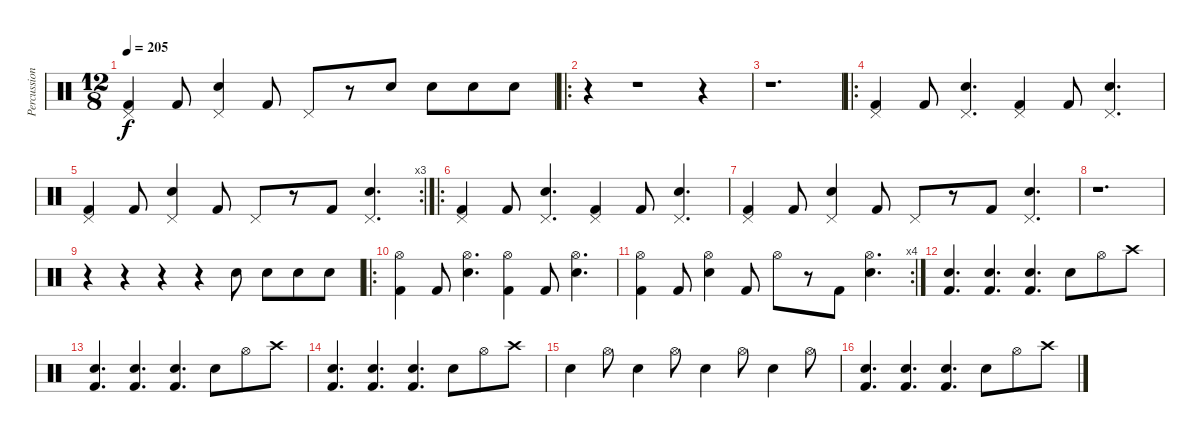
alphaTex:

\track ("Percussion" "Percussion") {instrument percussion}
\staff {score}
\articulation defaults
\ts (12 8)
\tempo 205
\clef neutral
\ks c
("Pedal Hi-Hat (hit)" "Kick (hit) 2").4{dy f} "Kick (hit) 2".8 ("Pedal Hi-Hat (hit)" "Snare (hit) 2").4 "Kick (hit) 2".8 "Pedal Hi-Hat (hit)".8 r.8 "Snare (hit) 2".8 "Snare (hit) 2".8 "Snare (hit) 2".8 "Snare (hit) 2".8 |
\ro
r.4 r.1 r.4 |
r.1{d} |
\ro
("Pedal Hi-Hat (hit)" "Kick (hit) 2").4 "Kick (hit) 2".8 ("Pedal Hi-Hat (hit)" "Snare (hit) 2").4{d} ("Pedal Hi-Hat (hit)" "Kick (hit) 2").4 "Kick (hit) 2".8 ("Pedal Hi-Hat (hit)" "Snare (hit) 2").4{d} |
\rc 3
("Pedal Hi-Hat (hit)" "Kick (hit) 2").4 "Kick (hit) 2".8 ("Pedal Hi-Hat (hit)" "Snare (hit) 2").4 "Kick (hit) 2".8 "Pedal Hi-Hat (hit)".8 r.8 "Kick (hit) 2".8 ("Pedal Hi-Hat (hit)" "Snare (hit) 2").4{d} |
\ro
("Pedal Hi-Hat (hit)" "Kick (hit) 2").4 "Kick (hit) 2".8 ("Pedal Hi-Hat (hit)" "Snare (hit) 2").4{d} ("Pedal Hi-Hat (hit)" "Kick (hit) 2").4 "Kick (hit) 2".8 ("Pedal Hi-Hat (hit)" "Snare (hit) 2").4{d} |
("Pedal Hi-Hat (hit)" "Kick (hit) 2").4 "Kick (hit) 2".8 ("Pedal Hi-Hat (hit)" "Snare (hit) 2").4 "Kick (hit) 2".8 "Pedal Hi-Hat (hit)".8 r.8 "Kick (hit) 2".8 ("Pedal Hi-Hat (hit)" "Snare (hit) 2").4{d} |
r.1{d} |
r.4 r.4 r.4 r.4 "Snare (hit) 2".8 "Snare (hit) 2".8 "Snare (hit) 2".8 "Snare (hit) 2".8 |
\ro
("Hi-Hat (open)" "Kick (hit) 2").4 "Kick (hit) 2".8 ("Hi-Hat (open)" "Snare (hit) 2").4{d} ("Hi-Hat (open)" "Kick (hit) 2").4 "Kick (hit) 2".8 ("Hi-Hat (open)" "Snare (hit) 2").4{d} |
\rc 4
("Hi-Hat (open)" "Kick (hit) 2").4 "Kick (hit) 2".8 ("Hi-Hat (open)" "Snare (hit) 2").4 "Kick (hit) 2".8 "Hi-Hat (open)".8 r.8 "Kick (hit) 2".8 ("Hi-Hat (open)" "Snare (hit) 2").4{d} |
("Snare (hit) 2" "Kick (hit) 2").4{d} ("Snare (hit) 2" "Kick (hit) 2").4{d} ("Snare (hit) 2" "Kick (hit) 2").4{d} "Snare (hit) 2".8 "Hi-Hat (open)".8 "Crash high (hit)".8 |
("Snare (hit) 2" "Kick (hit) 2").4{d} ("Snare (hit) 2" "Kick (hit) 2").4{d} ("Snare (hit) 2" "Kick (hit) 2").4{d} "Snare (hit) 2".8 "Hi-Hat (open)".8 "Crash high (hit)".8 |
("Snare (hit) 2" "Kick (hit) 2").4{d} ("Snare (hit) 2" "Kick (hit) 2").4{d} ("Snare (hit) 2" "Kick (hit) 2").4{d} "Snare (hit) 2".8 "Hi-Hat (open)".8 "Crash high (hit)".8 |
"Snare (hit) 2".4 "Hi-Hat (open)".8 "Snare (hit) 2".4 "Hi-Hat (open)".8 "Snare (hit) 2".4 "Hi-Hat (open)".8 "Snare (hit) 2".4 "Hi-Hat (open)".8 |
("Snare (hit) 2" "Kick (hit) 2").4{d} ("Snare (hit) 2" "Kick (hit) 2").4{d} ("Snare (hit) 2" "Kick (hit) 2").4{d} "Snare (hit) 2".8 "Hi-Hat (open)".8 "Crash high (hit)".8
